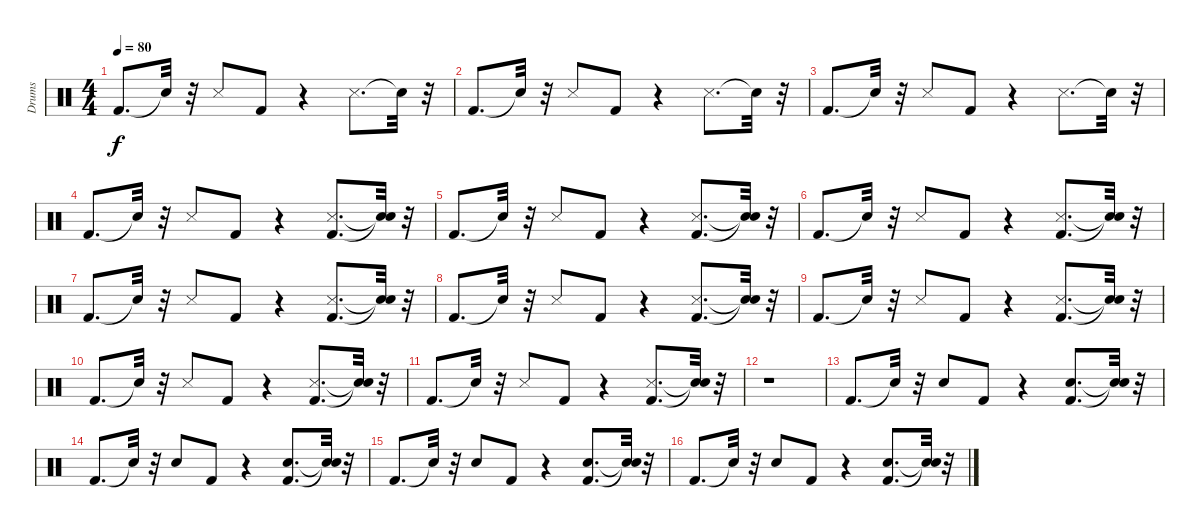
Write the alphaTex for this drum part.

\track ("Drums" "Drums") {instrument percussion}
\staff {score}
\articulation defaults
\ts (4 4)
\tempo 80
\clef neutral
\ks c "Kick (hit) 2".8{d dy f} "Snare (hit)"{t}.32
r.32 "Snare (side stick) 3".8 "Kick (hit) 2".8 r.4 "Snare (side stick) 3".8{d} "Snare (hit)"{t}.32 r.32 |
"Kick (hit) 2".8{d} "Snare (hit)"{t}.32 r.32 "Snare (side stick) 3".8 "Kick (hit) 2".8 r.4 "Snare (side stick) 3".8{d} "Snare (hit)"{t}.32 r.32 |
"Kick (hit) 2".8{d} "Snare (hit)"{t}.32 r.32 "Snare (side stick) 3".8 "Kick (hit) 2".8 r.4 "Snare (side stick) 3".8{d} "Snare (hit)"{t}.32 r.32 |
"Kick (hit) 2".8{d} "Snare (hit)"{t}.32 r.32 "Snare (side stick) 3".8 "Kick (hit) 2".8 r.4 ("Kick (hit) 2" "Snare (side stick) 3").8{d} ("Snare (hit)"{t} "Snare (hit)"{t}).32 r.32 |
"Kick (hit) 2".8{d} "Snare (hit)"{t}.32 r.32 "Snare (side stick) 3".8 "Kick (hit) 2".8 r.4 ("Kick (hit) 2" "Snare (side stick) 3").8{d} ("Snare (hit)"{t} "Snare (hit)"{t}).32 r.32 |
"Kick (hit) 2".8{d} "Snare (hit)"{t}.32 r.32 "Snare (side stick) 3".8 "Kick (hit) 2".8 r.4 ("Kick (hit) 2" "Snare (side stick) 3").8{d} ("Snare (hit)"{t} "Snare (hit)"{t}).32 r.32 |
"Kick (hit) 2".8{d} "Snare (hit)"{t}.32 r.32 "Snare (side stick) 3".8 "Kick (hit) 2".8 r.4 ("Kick (hit) 2" "Snare (side stick) 3").8{d} ("Snare (hit)"{t} "Snare (hit)"{t}).32 r.32 |
"Kick (hit) 2".8{d} "Snare (hit)"{t}.32 r.32 "Snare (side stick) 3".8 "Kick (hit) 2".8 r.4 ("Snare (side stick) 3" "Kick (hit) 2").8{d} ("Snare (hit)"{t} "Snare (hit)"{t}).32 r.32 |
"Kick (hit) 2".8{d} "Snare (hit)"{t}.32 r.32 "Snare (side stick) 3".8 "Kick (hit) 2".8 r.4 ("Snare (side stick) 3" "Kick (hit) 2").8{d} ("Snare (hit)"{t} "Snare (hit)"{t}).32 r.32 |
"Kick (hit) 2".8{d} "Snare (hit)"{t}.32 r.32 "Snare (side stick) 3".8 "Kick (hit) 2".8 r.4 ("Snare (side stick) 3" "Kick (hit) 2").8{d} ("Snare (hit)"{t} "Snare (hit)"{t}).32 r.32 |
"Kick (hit) 2".8{d} "Snare (hit)"{t}.32 r.32 "Snare (side stick) 3".8 "Kick (hit) 2".8 r.4 ("Snare (side stick) 3" "Kick (hit) 2").8{d} ("Snare (hit)"{t} "Snare (hit)"{t}).32 r.32 |
r.1 |
"Kick (hit) 2".8{d} "Snare (hit)"{t}.32 r.32 "Snare (hit) 2".8 "Kick (hit) 2".8 r.4 ("Snare (hit) 2" "Kick (hit) 2").8{d} ("Snare (hit)"{t} "Snare (hit)"{t}).32 r.32 |
"Kick (hit) 2".8{d} "Snare (hit)"{t}.32 r.32 "Snare (hit) 2".8 "Kick (hit) 2".8 r.4 ("Snare (hit) 2" "Kick (hit) 2").8{d} ("Snare (hit)"{t} "Snare (hit)"{t}).32 r.32 |
"Kick (hit) 2".8{d} "Snare (hit)"{t}.32 r.32 "Snare (hit) 2".8 "Kick (hit) 2".8 r.4 ("Snare (hit) 2" "Kick (hit) 2").8{d} ("Snare (hit)"{t} "Snare (hit)"{t}).32 r.32 |
"Kick (hit) 2".8{d} "Snare (hit)"{t}.32 r.32 "Snare (hit) 2".8 "Kick (hit) 2".8 r.4 ("Snare (hit) 2" "Kick (hit) 2").8{d} ("Snare (hit)"{t} "Snare (hit)"{t}).32 r.32
